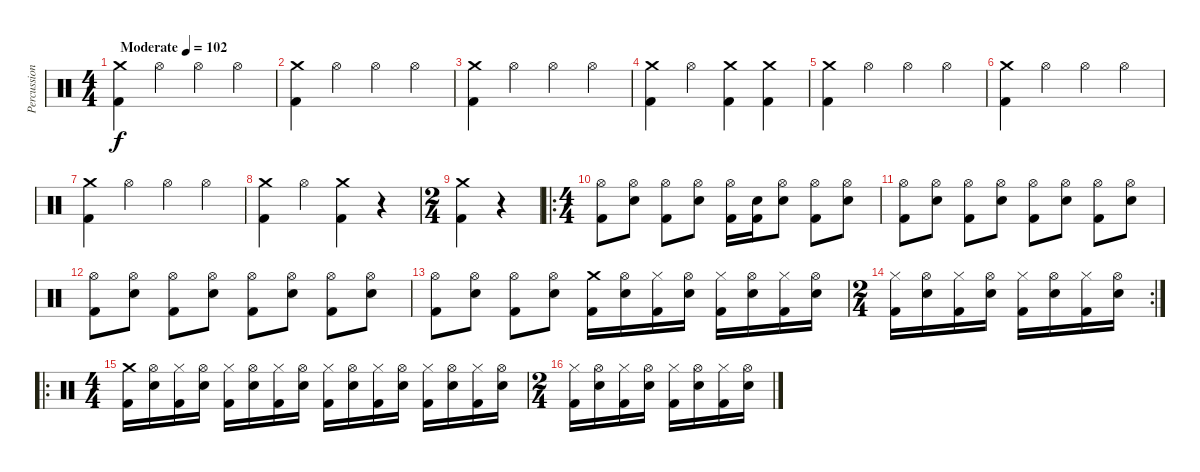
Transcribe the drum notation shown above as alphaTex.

\track ("Percussion" "Percussion") {instrument percussion}
\staff {score}
\articulation defaults
\ts (4 4)
\tempo (102 "Moderate")
\clef neutral
\ks c
("Crash medium (hit)" "Kick (hit) 2").4{dy f} "Hi-Hat (open)".4 "Hi-Hat (open)".4 "Hi-Hat (open)".4 |
("Crash medium (hit)" "Kick (hit) 2").4 "Hi-Hat (open)".4 "Hi-Hat (open)".4 "Hi-Hat (open)".4 |
("Crash medium (hit)" "Kick (hit) 2").4 "Hi-Hat (open)".4 "Hi-Hat (open)".4 "Hi-Hat (open)".4 |
("Crash medium (hit)" "Kick (hit) 2").4 "Hi-Hat (open)".4 ("Crash medium (hit)" "Kick (hit) 2").4 ("Crash medium (hit)" "Kick (hit) 2").4 |
("Crash medium (hit)" "Kick (hit) 2").4 "Hi-Hat (open)".4 "Hi-Hat (open)".4 "Hi-Hat (open)".4 |
("Crash medium (hit)" "Kick (hit) 2").4 "Hi-Hat (open)".4 "Hi-Hat (open)".4 "Hi-Hat (open)".4 |
("Crash medium (hit)" "Kick (hit) 2").4 "Hi-Hat (open)".4 "Hi-Hat (open)".4 "Hi-Hat (open)".4 |
("Crash medium (hit)" "Kick (hit) 2").4 "Hi-Hat (open)".4 ("Crash medium (hit)" "Kick (hit) 2").4 r.4 |
\ts (2 4)
("Crash medium (hit)" "Kick (hit) 2").4 r.4 |
\ro
\ts (4 4)
("Hi-Hat (open)" "Kick (hit) 2").8 ("Hi-Hat (open)" "Electric Snare (hit)").8 ("Hi-Hat (open)" "Kick (hit) 2").8 ("Hi-Hat (open)" "Electric Snare (hit)").8 ("Hi-Hat (open)" "Kick (hit) 2").16 ("Snare (hit)" "Kick (hit) 2").16 ("Hi-Hat (open)" "Electric Snare (hit)").8 ("Hi-Hat (open)" "Kick (hit) 2").8 ("Hi-Hat (open)" "Electric Snare (hit)").8 |
("Hi-Hat (open)" "Kick (hit) 2").8 ("Hi-Hat (open)" "Electric Snare (hit)").8 ("Hi-Hat (open)" "Kick (hit) 2").8 ("Hi-Hat (open)" "Electric Snare (hit)").8 ("Hi-Hat (open)" "Kick (hit) 2").8 ("Hi-Hat (open)" "Electric Snare (hit)").8 ("Hi-Hat (open)" "Kick (hit) 2").8 ("Hi-Hat (open)" "Electric Snare (hit)").8 |
("Hi-Hat (open)" "Kick (hit) 2").8 ("Hi-Hat (open)" "Electric Snare (hit)").8 ("Hi-Hat (open)" "Kick (hit) 2").8 ("Hi-Hat (open)" "Electric Snare (hit)").8 ("Hi-Hat (open)" "Kick (hit) 2").8 ("Hi-Hat (open)" "Electric Snare (hit)").8 ("Hi-Hat (open)" "Kick (hit) 2").8 ("Hi-Hat (open)" "Electric Snare (hit)").8 |
("Hi-Hat (open)" "Kick (hit) 2").8 ("Hi-Hat (open)" "Electric Snare (hit)").8 ("Hi-Hat (open)" "Kick (hit) 2").8 ("Hi-Hat (open)" "Electric Snare (hit)").8 ("Crash medium (hit)" "Kick (hit) 2").16 ("Hi-Hat (open)" "Electric Snare (hit)").16 ("Hi-Hat (closed)" "Kick (hit) 2").16 ("Hi-Hat (open)" "Electric Snare (hit)").16 ("Hi-Hat (closed)" "Kick (hit) 2").16 ("Hi-Hat (open)" "Electric Snare (hit)").16 ("Hi-Hat (closed)" "Kick (hit) 2").16 ("Hi-Hat (open)" "Electric Snare (hit)").16 |
\rc 2
\ts (2 4)
("Hi-Hat (closed)" "Kick (hit) 2").16 ("Hi-Hat (open)" "Electric Snare (hit)").16 ("Hi-Hat (closed)" "Kick (hit) 2").16 ("Hi-Hat (open)" "Electric Snare (hit)").16 ("Hi-Hat (closed)" "Kick (hit) 2").16 ("Hi-Hat (open)" "Electric Snare (hit)").16 ("Hi-Hat (closed)" "Kick (hit) 2").16 ("Hi-Hat (open)" "Electric Snare (hit)").16 |
\ro
\ts (4 4)
("Crash medium (hit)" "Kick (hit) 2").16 ("Hi-Hat (open)" "Electric Snare (hit)").16 ("Hi-Hat (closed)" "Kick (hit) 2").16 ("Hi-Hat (open)" "Electric Snare (hit)").16 ("Hi-Hat (closed)" "Kick (hit) 2").16 ("Hi-Hat (open)" "Electric Snare (hit)").16 ("Hi-Hat (closed)" "Kick (hit) 2").16 ("Hi-Hat (open)" "Electric Snare (hit)").16 ("Hi-Hat (closed)" "Kick (hit) 2").16 ("Hi-Hat (open)" "Electric Snare (hit)").16 ("Hi-Hat (closed)" "Kick (hit) 2").16 ("Hi-Hat (open)" "Electric Snare (hit)").16 ("Hi-Hat (closed)" "Kick (hit) 2").16 ("Hi-Hat (open)" "Electric Snare (hit)").16 ("Hi-Hat (closed)" "Kick (hit) 2").16 ("Hi-Hat (open)" "Electric Snare (hit)").16 |
\ts (2 4)
("Hi-Hat (closed)" "Kick (hit) 2").16 ("Hi-Hat (open)" "Electric Snare (hit)").16 ("Hi-Hat (closed)" "Kick (hit) 2").16 ("Hi-Hat (open)" "Electric Snare (hit)").16 ("Hi-Hat (closed)" "Kick (hit) 2").16 ("Hi-Hat (open)" "Electric Snare (hit)").16 ("Hi-Hat (closed)" "Kick (hit) 2").16 ("Hi-Hat (open)" "Electric Snare (hit)").16
